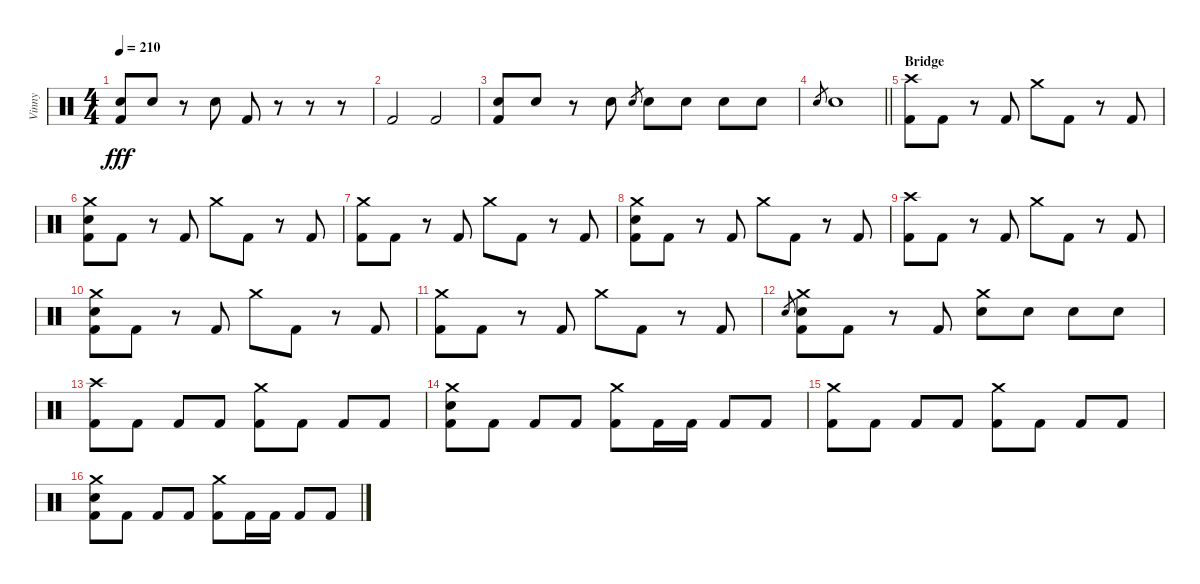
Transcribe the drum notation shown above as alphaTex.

\track ("Vinny" "Vinny") {instrument percussion}
\staff {score}
\articulation defaults
\ts (4 4)
\tempo 210
\clef neutral
\ks c
("Electric Snare (hit)" "Kick (hit) 2").8{dy fff} "Electric Snare (hit)".8 r.8 "Electric Snare (hit)".8 "Kick (hit) 2".8 r.8 r.8 r.8 |
"Kick (hit) 2".2 "Kick (hit) 2".2 |
("Electric Snare (hit)" "Kick (hit) 2").8 "Electric Snare (hit)".8 r.8 "Electric Snare (hit)".8 "Electric Snare (hit)".8{gr} "Electric Snare (hit)".8 "Electric Snare (hit)".8 "Electric Snare (hit)".8 "Electric Snare (hit)".8 |
\barLineRight lightlight "Electric Snare (hit)".8{gr} "Electric Snare (hit)".1
|
\section ("" "Bridge")
("Crash high (hit)" "Kick (hit) 2").8 "Kick (hit) 2".8 r.8 "Kick (hit) 2".8 "Crash medium (hit)".8 "Kick (hit) 2".8 r.8 "Kick (hit) 2".8 |
("Crash medium (hit)" "Electric Snare (hit)" "Kick (hit) 2").8 "Kick (hit) 2".8 r.8 "Kick (hit) 2".8 "Crash medium (hit)".8 "Kick (hit) 2".8 r.8 "Kick (hit) 2".8 |
("Crash medium (hit)" "Kick (hit) 2").8 "Kick (hit) 2".8 r.8 "Kick (hit) 2".8 "Crash medium (hit)".8 "Kick (hit) 2".8 r.8 "Kick (hit) 2".8 |
("Crash medium (hit)" "Electric Snare (hit)" "Kick (hit) 2").8 "Kick (hit) 2".8 r.8 "Kick (hit) 2".8 "Crash medium (hit)".8 "Kick (hit) 2".8 r.8 "Kick (hit) 2".8 |
("Crash high (hit)" "Kick (hit) 2").8 "Kick (hit) 2".8 r.8 "Kick (hit) 2".8 "Crash medium (hit)".8 "Kick (hit) 2".8 r.8 "Kick (hit) 2".8 |
("Crash medium (hit)" "Electric Snare (hit)" "Kick (hit) 2").8 "Kick (hit) 2".8 r.8 "Kick (hit) 2".8 "Crash medium (hit)".8 "Kick (hit) 2".8 r.8 "Kick (hit) 2".8 |
("Crash medium (hit)" "Kick (hit) 2").8 "Kick (hit) 2".8 r.8 "Kick (hit) 2".8 "Crash medium (hit)".8 "Kick (hit) 2".8 r.8 "Kick (hit) 2".8 |
"Electric Snare (hit)".8{gr} ("Crash medium (hit)" "Electric Snare (hit)" "Kick (hit) 2").8 "Kick (hit) 2".8 r.8 "Kick (hit) 2".8 ("Crash medium (hit)" "Electric Snare (hit)").8 "Electric Snare (hit)".8 "Electric Snare (hit)".8 "Electric Snare (hit)".8 |
("Crash high (hit)" "Kick (hit) 2").8 "Kick (hit) 2".8 "Kick (hit) 2".8 "Kick (hit) 2".8 ("Crash medium (hit)" "Kick (hit) 2").8 "Kick (hit) 2".8 "Kick (hit) 2".8 "Kick (hit) 2".8 |
("Crash medium (hit)" "Electric Snare (hit)" "Kick (hit) 2").8 "Kick (hit) 2".8 "Kick (hit) 2".8 "Kick (hit) 2".8 ("Crash medium (hit)" "Kick (hit) 2").8 "Kick (hit) 2".16 "Kick (hit) 2".16 "Kick (hit) 2".8 "Kick (hit) 2".8 |
("Crash medium (hit)" "Kick (hit) 2").8 "Kick (hit) 2".8 "Kick (hit) 2".8 "Kick (hit) 2".8 ("Crash medium (hit)" "Kick (hit) 2").8 "Kick (hit) 2".8 "Kick (hit) 2".8 "Kick (hit) 2".8 |
("Crash medium (hit)" "Electric Snare (hit)" "Kick (hit) 2").8 "Kick (hit) 2".8 "Kick (hit) 2".8 "Kick (hit) 2".8 ("Crash medium (hit)" "Kick (hit) 2").8 "Kick (hit) 2".16 "Kick (hit) 2".16 "Kick (hit) 2".8 "Kick (hit) 2".8
